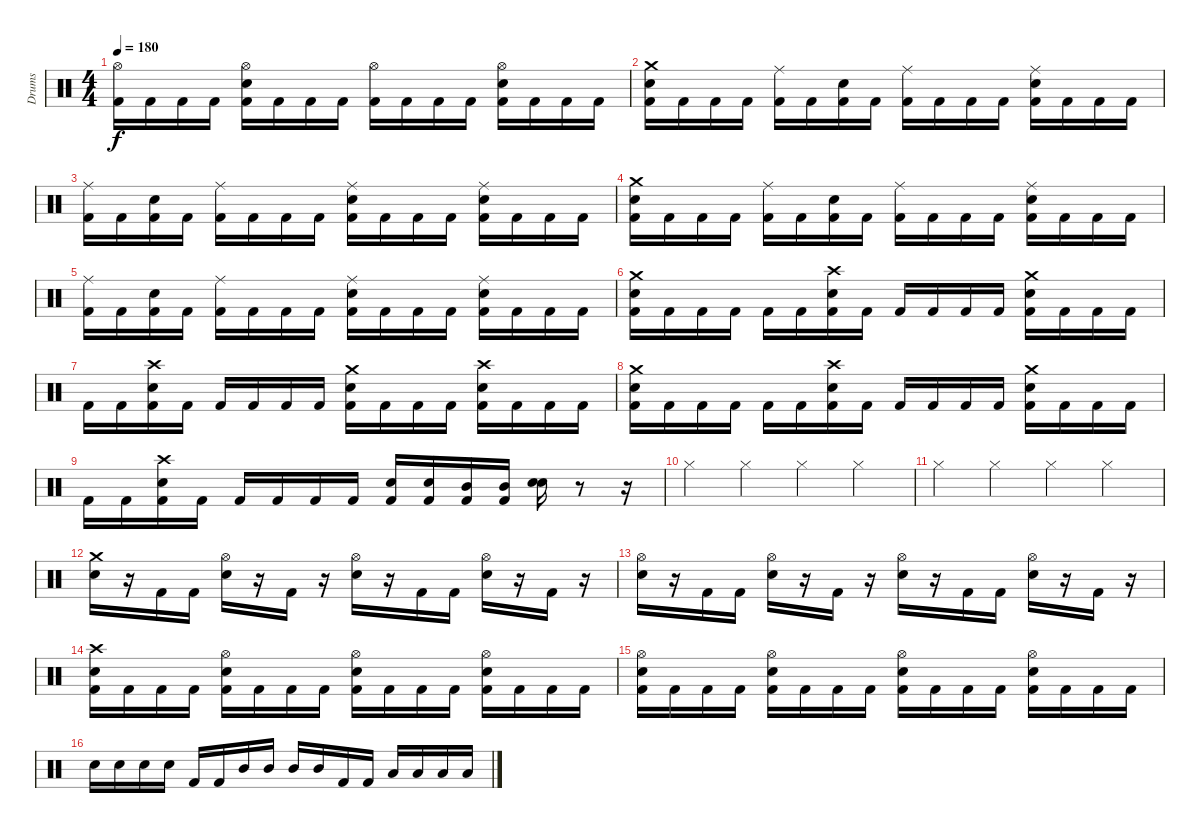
\track ("Drums" "Drums") {instrument percussion}
\staff {score}
\articulation defaults
\ts (4 4)
\tempo 180
\clef neutral
\ks c
("Hi-Hat (open)" "Kick (hit) 2").16{dy f} "Kick (hit) 2".16 "Kick (hit) 2".16 "Kick (hit) 2".16 ("Hi-Hat (open)" "Snare (hit) 2" "Kick (hit) 2").16 "Kick (hit) 2".16 "Kick (hit) 2".16 "Kick (hit) 2".16 ("Hi-Hat (open)" "Kick (hit) 2").16 "Kick (hit) 2".16 "Kick (hit) 2".16 "Kick (hit) 2".16 ("Hi-Hat (open)" "Snare (hit) 2" "Kick (hit) 2").16 "Kick (hit) 2".16 "Kick (hit) 2".16 "Kick (hit) 2".16 |
("Crash medium (hit)" "Snare (hit) 2" "Kick (hit) 2").16 "Kick (hit) 2".16 "Kick (hit) 2".16 "Kick (hit) 2".16 ("Ride (middle)" "Kick (hit) 2").16 "Kick (hit) 2".16 ("Snare (hit) 2" "Kick (hit) 2").16 "Kick (hit) 2".16 ("Ride (middle)" "Kick (hit) 2").16 "Kick (hit) 2".16 "Kick (hit) 2".16 "Kick (hit) 2".16 ("Ride (middle)" "Snare (hit) 2" "Kick (hit) 2").16 "Kick (hit) 2".16 "Kick (hit) 2".16 "Kick (hit) 2".16 |
("Ride (middle)" "Kick (hit) 2").16 "Kick (hit) 2".16 ("Snare (hit) 2" "Kick (hit) 2").16 "Kick (hit) 2".16 ("Ride (middle)" "Kick (hit) 2").16 "Kick (hit) 2".16 "Kick (hit) 2".16 "Kick (hit) 2".16 ("Ride (middle)" "Snare (hit) 2" "Kick (hit) 2").16 "Kick (hit) 2".16 "Kick (hit) 2".16 "Kick (hit) 2".16 ("Ride (middle)" "Snare (hit) 2" "Kick (hit) 2").16 "Kick (hit) 2".16 "Kick (hit) 2".16 "Kick (hit) 2".16 |
("Crash medium (hit)" "Snare (hit) 2" "Kick (hit) 2").16 "Kick (hit) 2".16 "Kick (hit) 2".16 "Kick (hit) 2".16 ("Ride (middle)" "Kick (hit) 2").16 "Kick (hit) 2".16 ("Snare (hit) 2" "Kick (hit) 2").16 "Kick (hit) 2".16 ("Ride (middle)" "Kick (hit) 2").16 "Kick (hit) 2".16 "Kick (hit) 2".16 "Kick (hit) 2".16 ("Ride (middle)" "Snare (hit) 2" "Kick (hit) 2").16 "Kick (hit) 2".16 "Kick (hit) 2".16 "Kick (hit) 2".16 |
("Ride (middle)" "Kick (hit) 2").16 "Kick (hit) 2".16 ("Snare (hit) 2" "Kick (hit) 2").16 "Kick (hit) 2".16 ("Ride (middle)" "Kick (hit) 2").16 "Kick (hit) 2".16 "Kick (hit) 2".16 "Kick (hit) 2".16 ("Ride (middle)" "Snare (hit) 2" "Kick (hit) 2").16 "Kick (hit) 2".16 "Kick (hit) 2".16 "Kick (hit) 2".16 ("Ride (middle)" "Snare (hit) 2" "Kick (hit) 2").16 "Kick (hit) 2".16 "Kick (hit) 2".16 "Kick (hit) 2".16 |
("Crash medium (hit)" "Snare (hit) 2" "Kick (hit) 2").16 "Kick (hit) 2".16 "Kick (hit) 2".16 "Kick (hit) 2".16 "Kick (hit) 2".16 "Kick (hit) 2".16 ("Crash high (hit)" "Snare (hit) 2" "Kick (hit) 2").16 "Kick (hit) 2".16 "Kick (hit) 2".16 "Kick (hit) 2".16 "Kick (hit) 2".16 "Kick (hit) 2".16 ("Crash medium (hit)" "Snare (hit) 2" "Kick (hit) 2").16 "Kick (hit) 2".16 "Kick (hit) 2".16 "Kick (hit) 2".16 |
"Kick (hit) 2".16 "Kick (hit) 2".16 ("Crash high (hit)" "Snare (hit) 2" "Kick (hit) 2").16 "Kick (hit) 2".16 "Kick (hit) 2".16 "Kick (hit) 2".16 "Kick (hit) 2".16 "Kick (hit) 2".16 ("Crash medium (hit)" "Snare (hit) 2" "Kick (hit) 2").16 "Kick (hit) 2".16 "Kick (hit) 2".16 "Kick (hit) 2".16 ("Crash high (hit)" "Snare (hit) 2" "Kick (hit) 2").16 "Kick (hit) 2".16 "Kick (hit) 2".16 "Kick (hit) 2".16 |
("Crash medium (hit)" "Snare (hit) 2" "Kick (hit) 2").16 "Kick (hit) 2".16 "Kick (hit) 2".16 "Kick (hit) 2".16 "Kick (hit) 2".16 "Kick (hit) 2".16 ("Crash high (hit)" "Snare (hit) 2" "Kick (hit) 2").16 "Kick (hit) 2".16 "Kick (hit) 2".16 "Kick (hit) 2".16 "Kick (hit) 2".16 "Kick (hit) 2".16 ("Crash medium (hit)" "Snare (hit) 2" "Kick (hit) 2").16 "Kick (hit) 2".16 "Kick (hit) 2".16 "Kick (hit) 2".16 |
"Kick (hit) 2".16 "Kick (hit) 2".16 ("Crash high (hit)" "Snare (hit) 2" "Kick (hit) 2").16 "Kick (hit) 2".16 "Kick (hit) 2".16 "Kick (hit) 2".16 "Kick (hit) 2".16 "Kick (hit) 2".16 ("Snare (hit) 2" "Kick (hit) 2").16 ("Snare (hit) 2" "Kick (hit) 2").16 ("Mid Tom (hit)" "Kick (hit) 2").16 ("Mid Tom (hit)" "Kick (hit) 2").16 ("Snare (hit) 2" "Snare (hit) 2").16 r.8 r.16 |
"Hi-Hat (closed)".4 "Hi-Hat (closed)".4 "Hi-Hat (closed)".4 "Hi-Hat (closed)".4 |
"Hi-Hat (closed)".4 "Hi-Hat (closed)".4 "Hi-Hat (closed)".4 "Hi-Hat (closed)".4 |
("Crash medium (hit)" "Snare (hit) 2").16 r.16 "Kick (hit) 2".16 "Kick (hit) 2".16 ("Hi-Hat (open)" "Snare (hit) 2").16 r.16 "Kick (hit) 2".16 r.16 ("Hi-Hat (open)" "Snare (hit) 2").16 r.16 "Kick (hit) 2".16 "Kick (hit) 2".16 ("Hi-Hat (open)" "Snare (hit) 2").16 r.16 "Kick (hit) 2".16 r.16 |
("Hi-Hat (open)" "Snare (hit) 2").16 r.16 "Kick (hit) 2".16 "Kick (hit) 2".16 ("Hi-Hat (open)" "Snare (hit) 2").16 r.16 "Kick (hit) 2".16 r.16 ("Hi-Hat (open)" "Snare (hit) 2").16 r.16 "Kick (hit) 2".16 "Kick (hit) 2".16 ("Hi-Hat (open)" "Snare (hit) 2").16 r.16 "Kick (hit) 2".16 r.16 |
("Crash high (hit)" "Snare (hit) 2" "Kick (hit) 2").16 "Kick (hit) 2".16 "Kick (hit) 2".16 "Kick (hit) 2".16 ("Hi-Hat (open)" "Snare (hit) 2" "Kick (hit) 2").16 "Kick (hit) 2".16 "Kick (hit) 2".16 "Kick (hit) 2".16 ("Hi-Hat (open)" "Snare (hit) 2" "Kick (hit) 2").16 "Kick (hit) 2".16 "Kick (hit) 2".16 "Kick (hit) 2".16 ("Hi-Hat (open)" "Snare (hit) 2" "Kick (hit) 2").16 "Kick (hit) 2".16 "Kick (hit) 2".16 "Kick (hit) 2".16 |
("Hi-Hat (open)" "Snare (hit) 2" "Kick (hit) 2").16 "Kick (hit) 2".16 "Kick (hit) 2".16 "Kick (hit) 2".16 ("Hi-Hat (open)" "Snare (hit) 2" "Kick (hit) 2").16 "Kick (hit) 2".16 "Kick (hit) 2".16 "Kick (hit) 2".16 ("Hi-Hat (open)" "Snare (hit) 2" "Kick (hit) 2").16 "Kick (hit) 2".16 "Kick (hit) 2".16 "Kick (hit) 2".16 ("Hi-Hat (open)" "Snare (hit) 2" "Kick (hit) 2").16 "Kick (hit) 2".16 "Kick (hit) 2".16 "Kick (hit) 2".16 |
"Snare (hit) 2".16 "Snare (hit) 2".16 "Snare (hit) 2".16 "Snare (hit) 2".16 "Kick (hit) 2".16 "Kick (hit) 2".16 "Mid Tom (hit)".16 "Mid Tom (hit)".16 "Mid Tom (hit)".16 "Mid Tom (hit)".16 "Kick (hit) 2".16 "Kick (hit) 2".16 "Low Tom (hit)".16 "Low Tom (hit)".16 "Low Tom (hit)".16 "Low Tom (hit)".16
